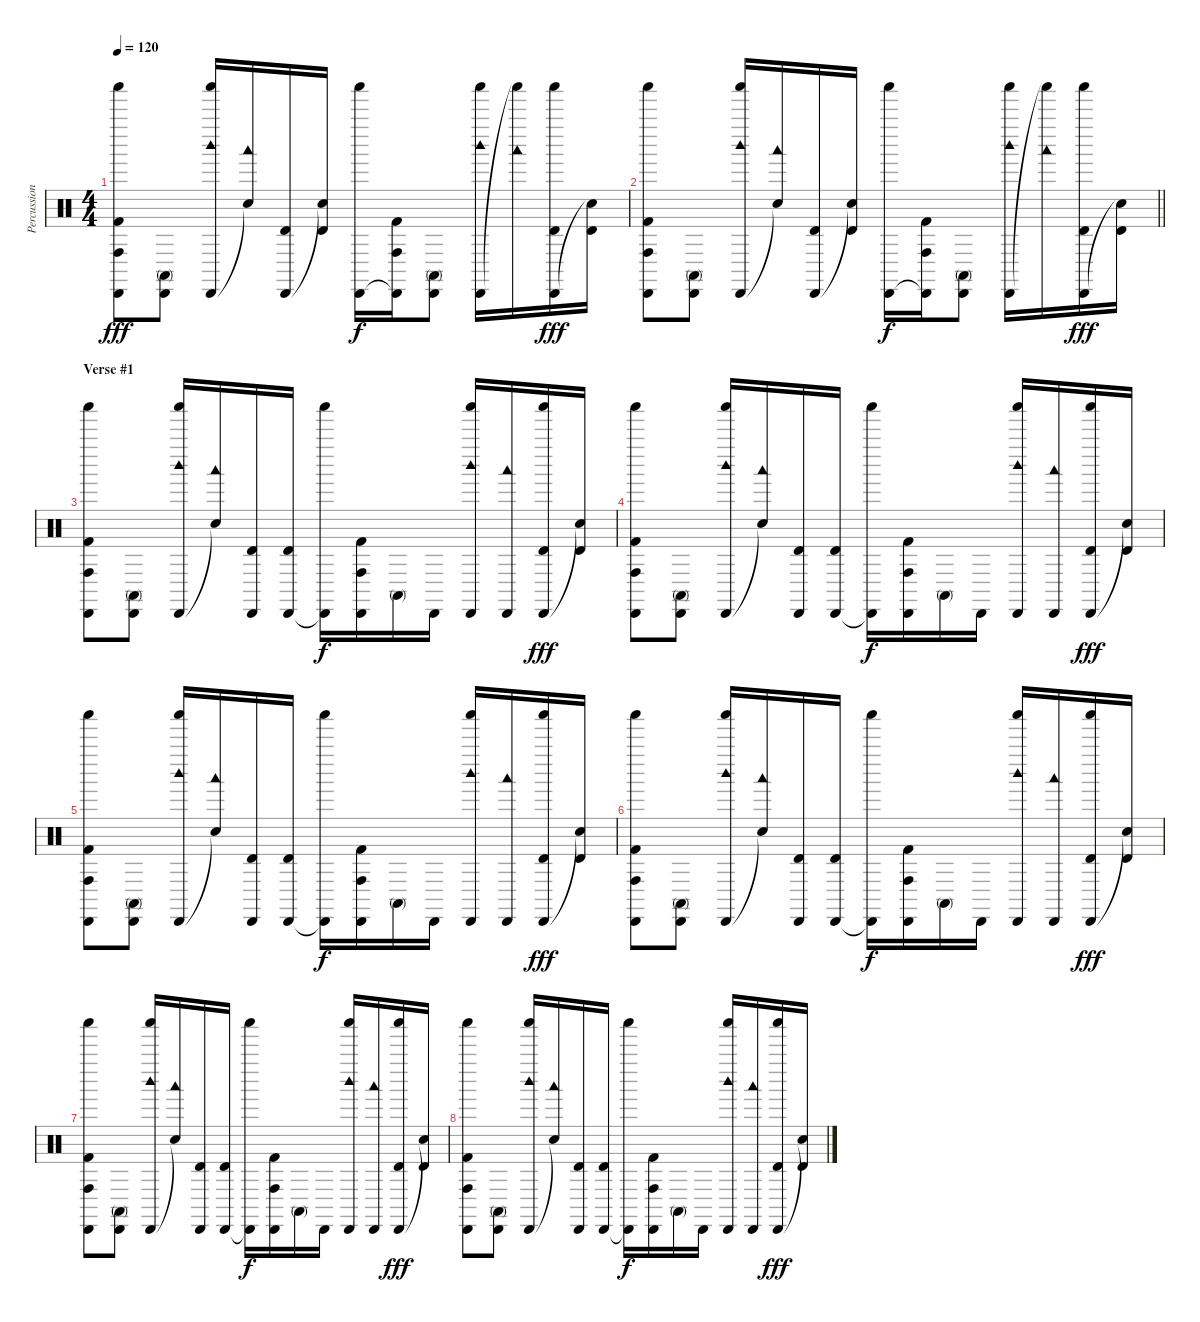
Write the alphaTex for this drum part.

\track ("Percussion" "Percussion") {instrument percussion}
\staff {score}
\articulation defaults
\ts (4 4)
\tempo 120
\clef neutral
\ks c
("Cabasa (hit)" "Conga high (hit)" "Kick (hit) 2" "Shaker (hit)").8{dy fff} ("Cabasa (hit)" "Conga high (mute)").8 ("Cabasa (hit)" "Woodblock high (hit)" "Shaker (hit)").16 ("Snare (hit)"{t} "Woodblock low (hit)").16 ("Cabasa (hit)" "Timbale high (hit)").16 ("Snare (hit)"{t} "Timbale high (hit)").16 ("Cabasa (hit)" "Shaker (hit)").16{dy f} ("Cabasa (hit)"{t} "Conga high (hit)" "Kick (hit) 2").16 ("Cabasa (hit)" "Conga high (mute)").8 ("Cabasa (hit)" "Woodblock high (hit)" "Shaker (hit)").16 ("Shaker (hit)"{t} "Woodblock low (hit)").16 ("Cabasa (hit)" "Timbale high (hit)" "Shaker (hit)").16{dy fff} ("Snare (hit)"{t} "Timbale high (hit)").16 |
\barLineRight lightlight
("Cabasa (hit)" "Conga high (hit)" "Kick (hit) 2" "Shaker (hit)").8 ("Cabasa (hit)" "Conga high (mute)").8 ("Cabasa (hit)" "Woodblock high (hit)" "Shaker (hit)").16 ("Snare (hit)"{t} "Woodblock low (hit)").16 ("Cabasa (hit)" "Timbale high (hit)").16 ("Snare (hit)"{t} "Timbale high (hit)").16 ("Cabasa (hit)" "Shaker (hit)").16{dy f} ("Cabasa (hit)"{t} "Conga high (hit)" "Kick (hit) 2").16 ("Cabasa (hit)" "Conga high (mute)").8 ("Cabasa (hit)" "Woodblock high (hit)" "Shaker (hit)").16 ("Shaker (hit)"{t} "Woodblock low (hit)").16 ("Cabasa (hit)" "Timbale high (hit)" "Shaker (hit)").16{dy fff} ("Snare (hit)"{t} "Timbale high (hit)").16 |
\section ("" "Verse #1")
("Cabasa (hit)" "Conga high (hit)" "Kick (hit) 2" "Shaker (hit)").8 ("Cabasa (hit)" "Conga high (mute)").8 ("Cabasa (hit)" "Woodblock high (hit)" "Shaker (hit)").16 ("Snare (hit)"{t} "Woodblock low (hit)").16 ("Cabasa (hit)" "Timbale high (hit)").16 ("Cabasa (hit)" "Timbale high (hit)").16 ("Cabasa (hit)"{t} "Shaker (hit)").16{dy f} ("Cabasa (hit)" "Conga high (hit)" "Kick (hit) 2").16 "Conga high (mute)".16 "Cabasa (hit)".16 ("Cabasa (hit)" "Woodblock high (hit)" "Shaker (hit)").16 ("Cabasa (hit)" "Woodblock low (hit)").16 ("Cabasa (hit)" "Timbale high (hit)" "Shaker (hit)").16{dy fff} ("Snare (hit)"{t} "Timbale high (hit)").16 |
("Cabasa (hit)" "Conga high (hit)" "Kick (hit) 2" "Shaker (hit)").8 ("Cabasa (hit)" "Conga high (mute)").8 ("Cabasa (hit)" "Woodblock high (hit)" "Shaker (hit)").16 ("Snare (hit)"{t} "Woodblock low (hit)").16 ("Cabasa (hit)" "Timbale high (hit)").16 ("Cabasa (hit)" "Timbale high (hit)").16 ("Cabasa (hit)"{t} "Shaker (hit)").16{dy f} ("Cabasa (hit)" "Conga high (hit)" "Kick (hit) 2").16 "Conga high (mute)".16 "Cabasa (hit)".16 ("Cabasa (hit)" "Woodblock high (hit)" "Shaker (hit)").16 ("Cabasa (hit)" "Woodblock low (hit)").16 ("Cabasa (hit)" "Timbale high (hit)" "Shaker (hit)").16{dy fff} ("Snare (hit)"{t} "Timbale high (hit)").16 |
("Cabasa (hit)" "Conga high (hit)" "Kick (hit) 2" "Shaker (hit)").8 ("Cabasa (hit)" "Conga high (mute)").8 ("Cabasa (hit)" "Woodblock high (hit)" "Shaker (hit)").16 ("Snare (hit)"{t} "Woodblock low (hit)").16 ("Cabasa (hit)" "Timbale high (hit)").16 ("Cabasa (hit)" "Timbale high (hit)").16 ("Cabasa (hit)"{t} "Shaker (hit)").16{dy f} ("Cabasa (hit)" "Conga high (hit)" "Kick (hit) 2").16 "Conga high (mute)".16 "Cabasa (hit)".16 ("Cabasa (hit)" "Woodblock high (hit)" "Shaker (hit)").16 ("Cabasa (hit)" "Woodblock low (hit)").16 ("Cabasa (hit)" "Timbale high (hit)" "Shaker (hit)").16{dy fff} ("Snare (hit)"{t} "Timbale high (hit)").16 |
("Cabasa (hit)" "Conga high (hit)" "Kick (hit) 2" "Shaker (hit)").8 ("Cabasa (hit)" "Conga high (mute)").8 ("Cabasa (hit)" "Woodblock high (hit)" "Shaker (hit)").16 ("Snare (hit)"{t} "Woodblock low (hit)").16 ("Cabasa (hit)" "Timbale high (hit)").16 ("Cabasa (hit)" "Timbale high (hit)").16 ("Cabasa (hit)"{t} "Shaker (hit)").16{dy f} ("Cabasa (hit)" "Conga high (hit)" "Kick (hit) 2").16 "Conga high (mute)".16 "Cabasa (hit)".16 ("Cabasa (hit)" "Woodblock high (hit)" "Shaker (hit)").16 ("Cabasa (hit)" "Woodblock low (hit)").16 ("Cabasa (hit)" "Timbale high (hit)" "Shaker (hit)").16{dy fff} ("Snare (hit)"{t} "Timbale high (hit)").16 |
("Cabasa (hit)" "Conga high (hit)" "Kick (hit) 2" "Shaker (hit)").8 ("Cabasa (hit)" "Conga high (mute)").8 ("Cabasa (hit)" "Woodblock high (hit)" "Shaker (hit)").16 ("Snare (hit)"{t} "Woodblock low (hit)").16 ("Cabasa (hit)" "Timbale high (hit)").16 ("Cabasa (hit)" "Timbale high (hit)").16 ("Cabasa (hit)"{t} "Shaker (hit)").16{dy f} ("Cabasa (hit)" "Conga high (hit)" "Kick (hit) 2").16 "Conga high (mute)".16 "Cabasa (hit)".16 ("Cabasa (hit)" "Woodblock high (hit)" "Shaker (hit)").16 ("Cabasa (hit)" "Woodblock low (hit)").16 ("Cabasa (hit)" "Timbale high (hit)" "Shaker (hit)").16{dy fff} ("Snare (hit)"{t} "Timbale high (hit)").16 |
("Cabasa (hit)" "Conga high (hit)" "Kick (hit) 2" "Shaker (hit)").8 ("Cabasa (hit)" "Conga high (mute)").8 ("Cabasa (hit)" "Woodblock high (hit)" "Shaker (hit)").16 ("Snare (hit)"{t} "Woodblock low (hit)").16 ("Cabasa (hit)" "Timbale high (hit)").16 ("Cabasa (hit)" "Timbale high (hit)").16 ("Cabasa (hit)"{t} "Shaker (hit)").16{dy f} ("Cabasa (hit)" "Conga high (hit)" "Kick (hit) 2").16 "Conga high (mute)".16 "Cabasa (hit)".16 ("Cabasa (hit)" "Woodblock high (hit)" "Shaker (hit)").16 ("Cabasa (hit)" "Woodblock low (hit)").16 ("Cabasa (hit)" "Timbale high (hit)" "Shaker (hit)").16{dy fff} ("Snare (hit)"{t} "Timbale high (hit)").16
